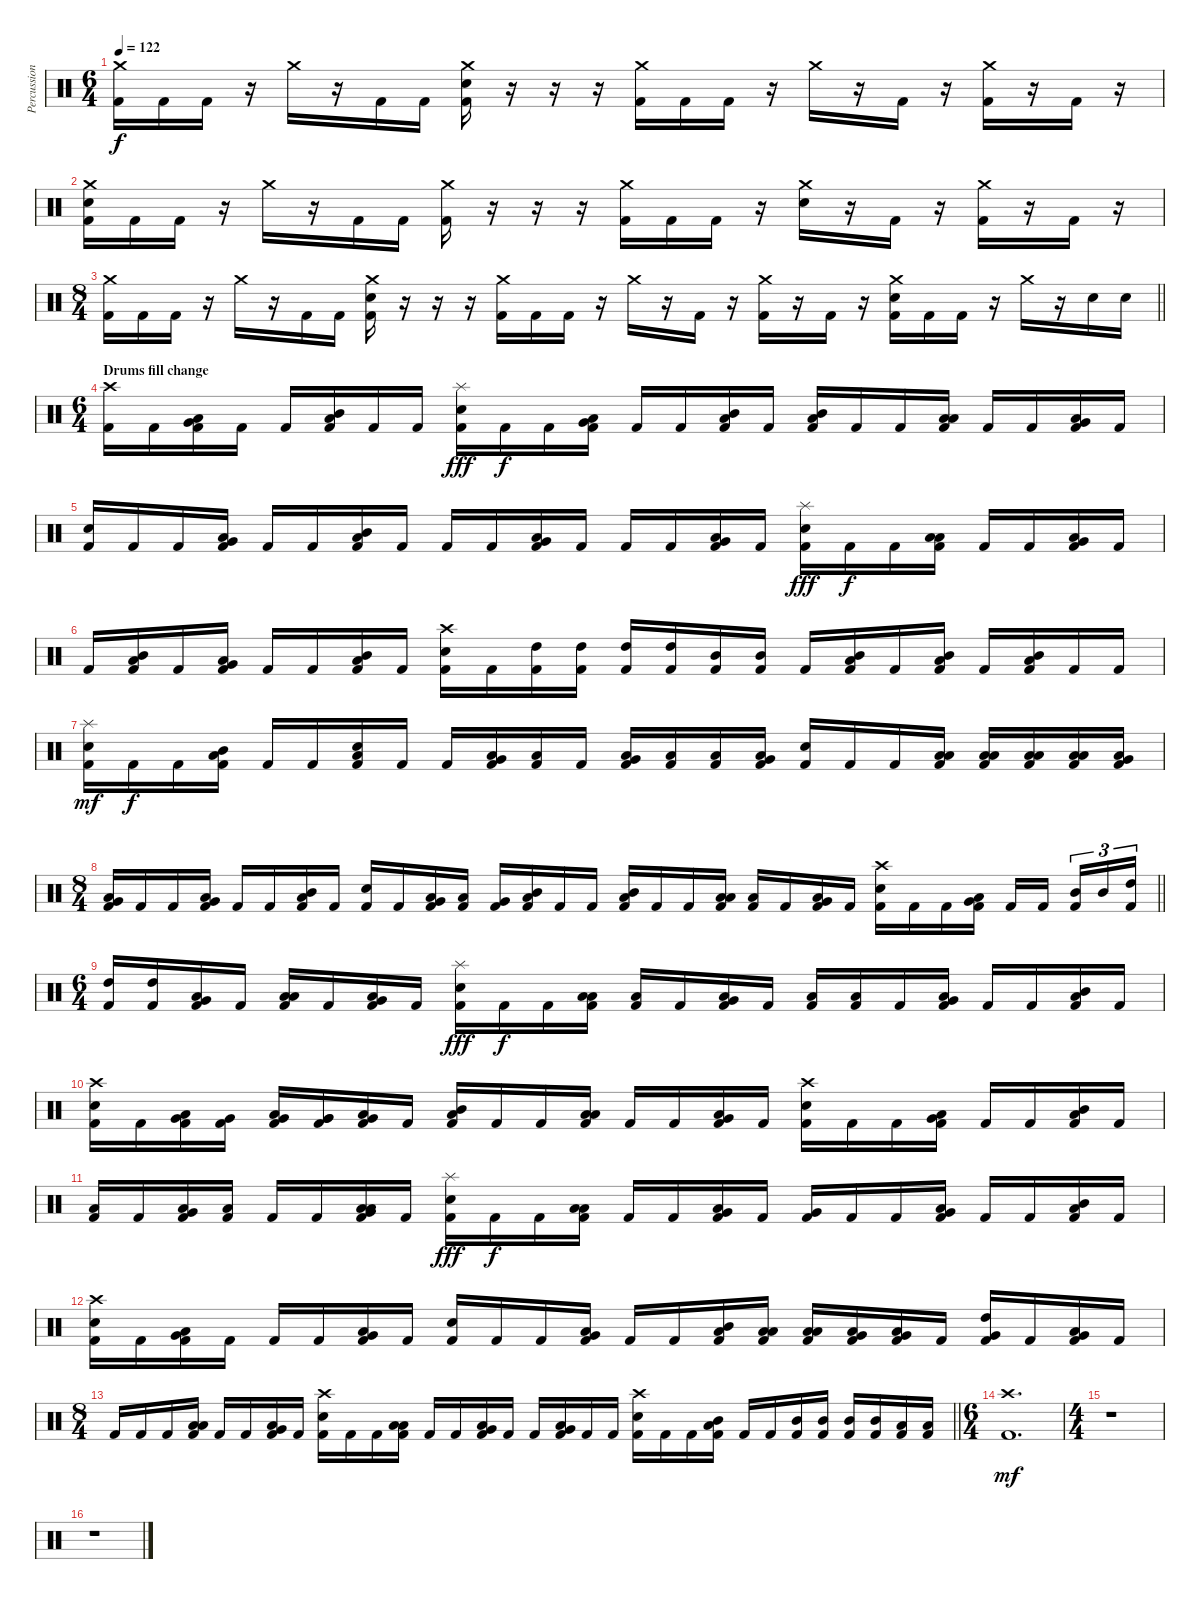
\track ("Percussion" "Percussion") {instrument percussion}
\staff {score}
\articulation defaults
\ts (6 4)
\tempo 122
\clef neutral
\ks c
("Crash medium (hit)" "Kick (hit) 2").16{dy f} "Kick (hit) 2".16 "Kick (hit) 2".16 r.16 "Crash medium (hit)".16 r.16 "Kick (hit) 2".16 "Kick (hit) 2".16 ("Crash medium (hit)" "Electric Snare (hit)" "Kick (hit) 2").16 r.16 r.16 r.16 ("Crash medium (hit)" "Kick (hit) 2").16 "Kick (hit) 2".16 "Kick (hit) 2".16 r.16 "Crash medium (hit)".16 r.16 "Kick (hit) 2".16 r.16 ("Crash medium (hit)" "Kick (hit) 2").16 r.16 "Kick (hit) 2".16 r.16 |
("Crash medium (hit)" "Electric Snare (hit)" "Kick (hit) 2").16 "Kick (hit) 2".16 "Kick (hit) 2".16 r.16 "Crash medium (hit)".16 r.16 "Kick (hit) 2".16 "Kick (hit) 2".16 ("Crash medium (hit)" "Kick (hit) 2").16 r.16 r.16 r.16 ("Crash medium (hit)" "Kick (hit) 2").16 "Kick (hit) 2".16 "Kick (hit) 2".16 r.16 ("Crash medium (hit)" "Electric Snare (hit)").16 r.16 "Kick (hit) 2".16 r.16 ("Crash medium (hit)" "Kick (hit) 2").16 r.16 "Kick (hit) 2".16 r.16 |
\ts (8 4)
\barLineRight lightlight
("Crash medium (hit)" "Kick (hit) 2").16 "Kick (hit) 2".16 "Kick (hit) 2".16 r.16 "Crash medium (hit)".16 r.16 "Kick (hit) 2".16 "Kick (hit) 2".16 ("Crash medium (hit)" "Electric Snare (hit)" "Kick (hit) 2").16 r.16 r.16 r.16 ("Crash medium (hit)" "Kick (hit) 2").16 "Kick (hit) 2".16 "Kick (hit) 2".16 r.16 "Crash medium (hit)".16 r.16 "Kick (hit) 2".16 r.16 ("Crash medium (hit)" "Kick (hit) 2").16 r.16 "Kick (hit) 2".16 r.16 ("Crash medium (hit)" "Electric Snare (hit)" "Kick (hit) 2").16 "Kick (hit) 2".16 "Kick (hit) 2".16 r.16 "Crash medium (hit)".16 r.16 "Electric Snare (hit)".16 "Electric Snare (hit)".16 |
\ts (6 4)
\section ("" "Drums fill change")
("Crash high (hit)" "Kick (hit) 2").16 "Kick (hit) 2".16 ("Very Low Tom (hit)" "Low Tom (hit)" "Kick (hit) 2").16 "Kick (hit) 2".16 "Kick (hit) 2".16 ("Mid Tom (hit)" "Low Tom (hit)" "Kick (hit) 2").16 "Kick (hit) 2".16 "Kick (hit) 2".16 ("Splash (hit)" "Electric Snare (hit)" "Kick (hit) 2").16{dy fff} "Kick (hit) 2".16{dy f} "Kick (hit) 2".16 ("Very Low Tom (hit)" "Low Tom (hit)" "Kick (hit) 2").16 "Kick (hit) 2".16 "Kick (hit) 2".16 ("Mid Tom (hit)" "Low Tom (hit)" "Kick (hit) 2").16 "Kick (hit) 2".16 ("Mid Tom (hit)" "Low Tom (hit)" "Kick (hit) 2").16 "Kick (hit) 2".16 "Kick (hit) 2".16 ("Low Tom (hit)" "Low Tom (hit)" "Kick (hit) 2").16 "Kick (hit) 2".16 "Kick (hit) 2".16 ("Very Low Tom (hit)" "Low Tom (hit)" "Kick (hit) 2").16 "Kick (hit) 2".16 |
("Electric Snare (hit)" "Kick (hit) 2").16 "Kick (hit) 2".16 "Kick (hit) 2".16 ("Very Low Tom (hit)" "Low Tom (hit)" "Kick (hit) 2").16 "Kick (hit) 2".16 "Kick (hit) 2".16 ("Mid Tom (hit)" "Low Tom (hit)" "Kick (hit) 2").16 "Kick (hit) 2".16 "Kick (hit) 2".16 "Kick (hit) 2".16 ("Very Low Tom (hit)" "Low Tom (hit)" "Kick (hit) 2").16 "Kick (hit) 2".16 "Kick (hit) 2".16 "Kick (hit) 2".16 ("Very Low Tom (hit)" "Low Floor Tom (hit)" "Kick (hit) 2").16 "Kick (hit) 2".16 ("Splash (hit)" "Electric Snare (hit)" "Kick (hit) 2").16{dy fff} "Kick (hit) 2".16{dy f} "Kick (hit) 2".16 ("Low Tom (hit)" "Low Tom (hit)" "Kick (hit) 2").16 "Kick (hit) 2".16 "Kick (hit) 2".16 ("Very Low Tom (hit)" "Low Tom (hit)" "Kick (hit) 2").16 "Kick (hit) 2".16 |
"Kick (hit) 2".16 ("Mid Tom (hit)" "Low Tom (hit)" "Kick (hit) 2").16 "Kick (hit) 2".16 ("Very Low Tom (hit)" "Low Tom (hit)" "Kick (hit) 2").16 "Kick (hit) 2".16 "Kick (hit) 2".16 ("Mid Tom (hit)" "Low Tom (hit)" "Kick (hit) 2").16 "Kick (hit) 2".16 ("Crash high (hit)" "Electric Snare (hit)" "Kick (hit) 2").16 "Kick (hit) 2".16 ("High Tom (hit)" "Kick (hit) 2").16 ("High Tom (hit)" "Kick (hit) 2").16 ("High Tom (hit)" "Kick (hit) 2").16 ("High Tom (hit)" "Kick (hit) 2").16 ("Mid Tom (hit)" "Kick (hit) 2").16 ("Mid Tom (hit)" "Kick (hit) 2").16 "Kick (hit) 2".16 ("Mid Tom (hit)" "Low Tom (hit)" "Kick (hit) 2").16 "Kick (hit) 2".16 ("Mid Tom (hit)" "Low Tom (hit)" "Kick (hit) 2").16 "Kick (hit) 2".16 ("Mid Tom (hit)" "Low Tom (hit)" "Kick (hit) 2").16 "Kick (hit) 2".16 "Kick (hit) 2".16 |
("Splash (hit)" "Electric Snare (hit)" "Kick (hit) 2").16{dy mf} "Kick (hit) 2".16{dy f} "Kick (hit) 2".16 ("Mid Tom (hit)" "Low Tom (hit)" "Kick (hit) 2").16 "Kick (hit) 2".16 "Kick (hit) 2".16 ("Low Tom (hit)" "Electric Snare (hit)" "Kick (hit) 2").16 "Kick (hit) 2".16 "Kick (hit) 2".16 ("Low Floor Tom (hit)" "Very Low Tom (hit)" "Kick (hit) 2").16 ("Low Tom (hit)" "Kick (hit) 2").16 "Kick (hit) 2".16 ("Low Floor Tom (hit)" "Very Low Tom (hit)" "Kick (hit) 2").16 ("Low Tom (hit)" "Kick (hit) 2").16 ("Low Tom (hit)" "Kick (hit) 2").16 ("Low Floor Tom (hit)" "Very Low Tom (hit)" "Kick (hit) 2").16 ("Electric Snare (hit)" "Kick (hit) 2").16 "Kick (hit) 2".16 "Kick (hit) 2".16 ("Low Tom (hit)" "Low Tom (hit)" "Kick (hit) 2").16 ("Low Tom (hit)" "Low Tom (hit)" "Kick (hit) 2").16 ("Low Tom (hit)" "Low Tom (hit)" "Kick (hit) 2").16 ("Low Tom (hit)" "Low Tom (hit)" "Kick (hit) 2").16 ("Very Low Tom (hit)" "Low Tom (hit)" "Kick (hit) 2").16 |
\ts (8 4)
\barLineRight lightlight
("Very Low Tom (hit)" "Low Tom (hit)" "Kick (hit) 2").16 "Kick (hit) 2".16 "Kick (hit) 2".16 ("Very Low Tom (hit)" "Low Tom (hit)" "Kick (hit) 2").16 "Kick (hit) 2".16 "Kick (hit) 2".16 ("Mid Tom (hit)" "Low Tom (hit)" "Kick (hit) 2").16 "Kick (hit) 2".16 ("Electric Snare (hit)" "Kick (hit) 2").16 "Kick (hit) 2".16 ("Very Low Tom (hit)" "Low Tom (hit)" "Kick (hit) 2").16 ("Low Tom (hit)" "Kick (hit) 2").16 ("Very Low Tom (hit)" "Kick (hit) 2").16 ("Mid Tom (hit)" "Low Tom (hit)" "Kick (hit) 2").16 "Kick (hit) 2".16 "Kick (hit) 2".16 ("Mid Tom (hit)" "Low Tom (hit)" "Kick (hit) 2").16 "Kick (hit) 2".16 "Kick (hit) 2".16 ("Low Tom (hit)" "Low Tom (hit)" "Kick (hit) 2").16 ("Low Tom (hit)" "Kick (hit) 2").16 "Kick (hit) 2".16 ("Very Low Tom (hit)" "Low Tom (hit)" "Kick (hit) 2").16 "Kick (hit) 2".16 ("Crash high (hit)" "Electric Snare (hit)" "Kick (hit) 2").16 "Kick (hit) 2".16 "Kick (hit) 2".16 ("Very Low Tom (hit)" "Low Tom (hit)" "Kick (hit) 2").16 "Kick (hit) 2".16 "Kick (hit) 2".16{beam splitsecondary} ("Mid Tom (hit)" "Kick (hit) 2").16{tu (3 2)} "Mid Tom (hit)".16{tu (3 2)} ("High Tom (hit)" "Kick (hit) 2").16{tu (3 2)} |
\ts (6 4)
("High Tom (hit)" "Kick (hit) 2").16 ("High Tom (hit)" "Kick (hit) 2").16 ("Very Low Tom (hit)" "Low Tom (hit)" "Kick (hit) 2").16 "Kick (hit) 2".16 ("Low Tom (hit)" "Low Tom (hit)" "Kick (hit) 2").16 "Kick (hit) 2".16 ("Very Low Tom (hit)" "Low Tom (hit)" "Kick (hit) 2").16 "Kick (hit) 2".16 ("Splash (hit)" "Electric Snare (hit)" "Kick (hit) 2").16{dy fff} "Kick (hit) 2".16{dy f} "Kick (hit) 2".16 ("Low Tom (hit)" "Low Tom (hit)" "Kick (hit) 2").16 ("Low Floor Tom (hit)" "Kick (hit) 2").16 "Kick (hit) 2".16 ("Very Low Tom (hit)" "Low Tom (hit)" "Kick (hit) 2").16 "Kick (hit) 2".16 ("Low Floor Tom (hit)" "Kick (hit) 2").16 ("Low Tom (hit)" "Kick (hit) 2").16 "Kick (hit) 2".16 ("Very Low Tom (hit)" "Low Tom (hit)" "Kick (hit) 2").16 "Kick (hit) 2".16 "Kick (hit) 2".16 ("Mid Tom (hit)" "Low Tom (hit)" "Kick (hit) 2").16 "Kick (hit) 2".16 |
("Crash high (hit)" "Electric Snare (hit)" "Kick (hit) 2").16 "Kick (hit) 2".16 ("Very Low Tom (hit)" "Low Tom (hit)" "Kick (hit) 2").16 ("Very Low Tom (hit)" "Kick (hit) 2").16 ("Very Low Tom (hit)" "Low Floor Tom (hit)" "Kick (hit) 2").16 ("Very Low Tom (hit)" "Very Low Tom (hit)" "Kick (hit) 2").16 ("Very Low Tom (hit)" "Low Floor Tom (hit)" "Kick (hit) 2").16 "Kick (hit) 2".16 ("Mid Tom (hit)" "Low Tom (hit)" "Kick (hit) 2").16 "Kick (hit) 2".16 "Kick (hit) 2".16 ("Low Tom (hit)" "Low Tom (hit)" "Kick (hit) 2").16 "Kick (hit) 2".16 "Kick (hit) 2".16 ("Very Low Tom (hit)" "Low Tom (hit)" "Kick (hit) 2").16 "Kick (hit) 2".16 ("Crash high (hit)" "Electric Snare (hit)" "Kick (hit) 2").16 "Kick (hit) 2".16 "Kick (hit) 2".16 ("Very Low Tom (hit)" "Low Tom (hit)" "Kick (hit) 2").16 "Kick (hit) 2".16 "Kick (hit) 2".16 ("Mid Tom (hit)" "Low Tom (hit)" "Kick (hit) 2").16 "Kick (hit) 2".16 |
("Low Floor Tom (hit)" "Kick (hit) 2").16 "Kick (hit) 2".16 ("Very Low Tom (hit)" "Low Tom (hit)" "Kick (hit) 2").16 ("Low Floor Tom (hit)" "Kick (hit) 2").16 "Kick (hit) 2".16 "Kick (hit) 2".16 ("Low Floor Tom (hit)" "Very Low Tom (hit)" "Low Floor Tom (hit)" "Kick (hit) 2").16 "Kick (hit) 2".16 ("Splash (hit)" "Electric Snare (hit)" "Kick (hit) 2").16{dy fff} "Kick (hit) 2".16{dy f} "Kick (hit) 2".16 ("Low Tom (hit)" "Low Tom (hit)" "Kick (hit) 2").16 "Kick (hit) 2".16 "Kick (hit) 2".16 ("Very Low Tom (hit)" "Low Tom (hit)" "Kick (hit) 2").16 "Kick (hit) 2".16 ("Very Low Tom (hit)" "Kick (hit) 2").16 "Kick (hit) 2".16 "Kick (hit) 2".16 ("Very Low Tom (hit)" "Low Tom (hit)" "Kick (hit) 2").16 "Kick (hit) 2".16 "Kick (hit) 2".16 ("Mid Tom (hit)" "Low Tom (hit)" "Kick (hit) 2").16 "Kick (hit) 2".16 |
("Crash high (hit)" "Electric Snare (hit)" "Kick (hit) 2").16 "Kick (hit) 2".16 ("Very Low Tom (hit)" "Low Tom (hit)" "Kick (hit) 2").16 "Kick (hit) 2".16 "Kick (hit) 2".16 "Kick (hit) 2".16 ("Very Low Tom (hit)" "Low Floor Tom (hit)" "Kick (hit) 2").16 "Kick (hit) 2".16 ("Electric Snare (hit)" "Kick (hit) 2").16 "Kick (hit) 2".16 "Kick (hit) 2".16 ("Very Low Tom (hit)" "Low Tom (hit)" "Kick (hit) 2").16 "Kick (hit) 2".16 "Kick (hit) 2".16 ("Mid Tom (hit)" "Low Tom (hit)" "Kick (hit) 2").16 ("Low Floor Tom (hit)" "Low Floor Tom (hit)" "Kick (hit) 2").16 ("Low Floor Tom (hit)" "Low Floor Tom (hit)" "Kick (hit) 2").16 ("Low Floor Tom (hit)" "Very Low Tom (hit)" "Kick (hit) 2").16 ("Very Low Tom (hit)" "Low Tom (hit)" "Kick (hit) 2").16 "Kick (hit) 2".16 ("High Tom (hit)" "Very Low Tom (hit)" "Kick (hit) 2").16 "Kick (hit) 2".16 ("Very Low Tom (hit)" "Low Floor Tom (hit)" "Kick (hit) 2").16 "Kick (hit) 2".16 |
\ts (8 4)
\barLineRight lightlight "Kick (hit) 2".16 "Kick (hit) 2".16 "Kick (hit) 2".16
("Low Tom (hit)" "Low Tom (hit)" "Kick (hit) 2").16 "Kick (hit) 2".16 "Kick (hit) 2".16 ("Very Low Tom (hit)" "Low Tom (hit)" "Kick (hit) 2").16 "Kick (hit) 2".16 ("Crash high (hit)" "Electric Snare (hit)" "Kick (hit) 2").16 "Kick (hit) 2".16 "Kick (hit) 2".16 ("Low Tom (hit)" "Low Tom (hit)" "Kick (hit) 2").16 "Kick (hit) 2".16 "Kick (hit) 2".16 ("Very Low Tom (hit)" "Low Tom (hit)" "Kick (hit) 2").16 "Kick (hit) 2".16 "Kick (hit) 2".16 ("Very Low Tom (hit)" "Low Tom (hit)" "Kick (hit) 2").16 "Kick (hit) 2".16 "Kick (hit) 2".16 ("Crash high (hit)" "Electric Snare (hit)" "Kick (hit) 2").16 "Kick (hit) 2".16 "Kick (hit) 2".16 ("Mid Tom (hit)" "Low Tom (hit)" "Kick (hit) 2").16 "Kick (hit) 2".16 "Kick (hit) 2".16 ("Mid Tom (hit)" "Kick (hit) 2").16 ("Mid Tom (hit)" "Kick (hit) 2").16 ("Mid Tom (hit)" "Kick (hit) 2").16 ("Mid Tom (hit)" "Kick (hit) 2").16 ("Low Tom (hit)" "Kick (hit) 2").16 ("Low Tom (hit)" "Kick (hit) 2").16 |
\ts (6 4)
("Crash high (hit)" "Kick (hit) 2").1{d dy mf} |
\ts (4 4)
r.1 |
r.1
